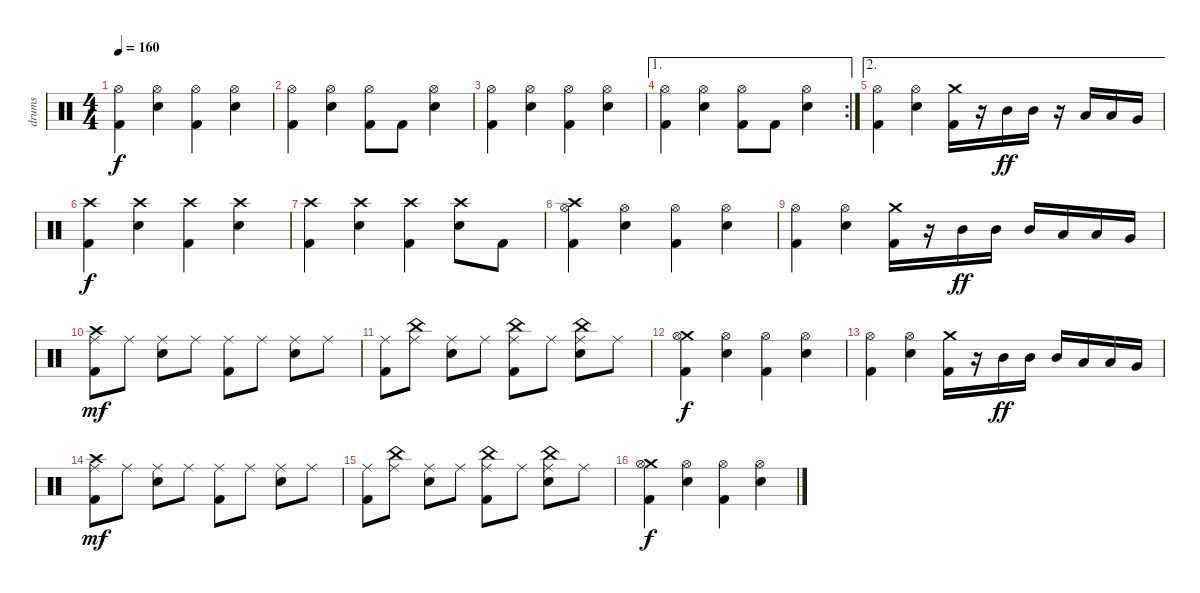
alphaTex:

\track ("drums" "drums") {instrument percussion}
\staff {score}
\articulation defaults
\ts (4 4)
\tempo 160
\clef neutral
\ks c
("Kick (hit) 2" "Hi-Hat (open)").4{dy f} ("Hi-Hat (open)" "Snare (hit) 2").4 ("Kick (hit) 2" "Hi-Hat (open)").4 ("Hi-Hat (open)" "Snare (hit) 2").4 |
("Kick (hit) 2" "Hi-Hat (open)").4 ("Hi-Hat (open)" "Snare (hit) 2").4 ("Kick (hit) 2" "Hi-Hat (open)").8 "Kick (hit) 2".8 ("Hi-Hat (open)" "Snare (hit) 2").4 |
("Kick (hit) 2" "Hi-Hat (open)").4 ("Hi-Hat (open)" "Snare (hit) 2").4 ("Kick (hit) 2" "Hi-Hat (open)").4 ("Hi-Hat (open)" "Snare (hit) 2").4 |
\ae 1
\rc 2
("Kick (hit) 2" "Hi-Hat (open)").4 ("Hi-Hat (open)" "Snare (hit) 2").4 ("Kick (hit) 2" "Hi-Hat (open)").8 "Kick (hit) 2".8 ("Hi-Hat (open)" "Snare (hit) 2").4 |
\ae 2
("Kick (hit) 2" "Hi-Hat (open)").4 ("Hi-Hat (open)" "Snare (hit) 2").4 ("Kick (hit) 2" "Crash medium (hit)").16 r.16 "Mid Tom (hit)".16{dy ff} "Mid Tom (hit)".16 r.16 "Low Tom (hit)".16 "Low Tom (hit)".16 "Very Low Tom (hit)".16 |
("Kick (hit) 2" "Crash high (hit)").4{dy f} ("Crash high (hit)" "Snare (hit) 2").4 ("Kick (hit) 2" "Crash high (hit)").4 ("Crash high (hit)" "Snare (hit) 2").4 |
("Kick (hit) 2" "Crash high (hit)").4 ("Crash high (hit)" "Snare (hit) 2").4 ("Kick (hit) 2" "Crash high (hit)").4 ("Crash high (hit)" "Snare (hit) 2").8 "Kick (hit) 2".8 |
("Kick (hit) 2" "Crash high (hit)" "Hi-Hat (open)").4 ("Hi-Hat (open)" "Snare (hit) 2").4 ("Kick (hit) 2" "Hi-Hat (open)").4 ("Hi-Hat (open)" "Snare (hit) 2").4 |
("Kick (hit) 2" "Hi-Hat (open)").4 ("Hi-Hat (open)" "Snare (hit) 2").4 ("Kick (hit) 2" "Crash medium (hit)").16 r.16 "Mid Tom (hit)".16{dy ff} "Mid Tom (hit)".16 "Mid Tom (hit)".16 "Low Tom (hit)".16 "Low Tom (hit)".16 "Very Low Tom (hit)".16 |
("Kick (hit) 2" "Crash high (hit)" "Ride (middle)").8{dy mf} "Ride (middle)".8 ("Ride (middle)" "Snare (hit) 2").8 "Ride (middle)".8 ("Kick (hit) 2" "Ride (middle)").8 "Ride (middle)".8 ("Ride (middle)" "Snare (hit) 2").8 "Ride (middle)".8 |
("Kick (hit) 2" "Ride (middle)").8 ("China (hit)" "Ride (middle)").8 ("Ride (middle)" "Snare (hit) 2").8 "Ride (middle)".8 ("Kick (hit) 2" "China (hit)" "Ride (middle)").8 "Ride (middle)".8 ("China (hit)" "Ride (middle)" "Snare (hit) 2").8 "Ride (middle)".8 |
("Kick (hit) 2" "Crash medium (hit)" "Hi-Hat (open)").4{dy f} ("Hi-Hat (open)" "Snare (hit) 2").4 ("Kick (hit) 2" "Hi-Hat (open)").4 ("Hi-Hat (open)" "Snare (hit) 2").4 |
("Kick (hit) 2" "Hi-Hat (open)").4 ("Hi-Hat (open)" "Snare (hit) 2").4 ("Kick (hit) 2" "Crash medium (hit)").16 r.16 "Mid Tom (hit)".16{dy ff} "Mid Tom (hit)".16 "Mid Tom (hit)".16 "Low Tom (hit)".16 "Low Tom (hit)".16 "Very Low Tom (hit)".16 |
("Kick (hit) 2" "Crash high (hit)" "Ride (middle)").8{dy mf} "Ride (middle)".8 ("Ride (middle)" "Snare (hit) 2").8 "Ride (middle)".8 ("Kick (hit) 2" "Ride (middle)").8 "Ride (middle)".8 ("Ride (middle)" "Snare (hit) 2").8 "Ride (middle)".8 |
("Kick (hit) 2" "Ride (middle)").8 ("China (hit)" "Ride (middle)").8 ("Ride (middle)" "Snare (hit) 2").8 "Ride (middle)".8 ("Kick (hit) 2" "China (hit)" "Ride (middle)").8 "Ride (middle)".8 ("China (hit)" "Ride (middle)" "Snare (hit) 2").8 "Ride (middle)".8 |
("Kick (hit) 2" "Crash medium (hit)" "Hi-Hat (open)").4{dy f} ("Hi-Hat (open)" "Snare (hit) 2").4 ("Kick (hit) 2" "Hi-Hat (open)").4 ("Hi-Hat (open)" "Snare (hit) 2").4
